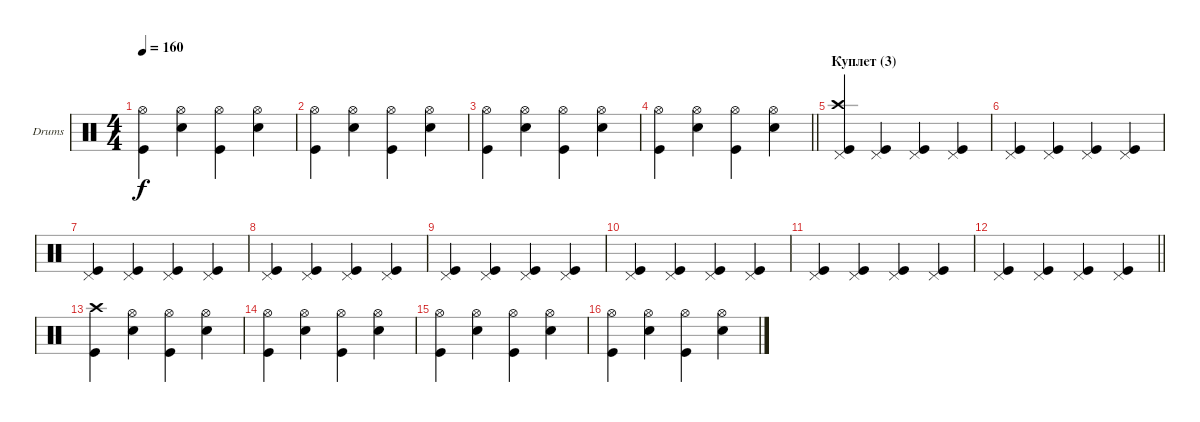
\bracketExtendMode groupsimilarinstruments
\firstSystemTrackNameOrientation horizontal
\otherSystemsTrackNameOrientation horizontal
\track ("Drumkit" "Drums") {instrument percussion}
\staff {score}
\articulation defaults
\ts (4 4)
\tempo 160
\clef neutral
\ks c
("Hi-Hat (open)" "Kick (hit)").4{dy f} ("Hi-Hat (open)" "Snare (hit) 2").4 ("Hi-Hat (open)" "Kick (hit)").4 ("Hi-Hat (open)" "Snare (hit) 2").4 |
("Hi-Hat (open)" "Kick (hit)").4 ("Hi-Hat (open)" "Snare (hit) 2").4 ("Hi-Hat (open)" "Kick (hit)").4 ("Hi-Hat (open)" "Snare (hit) 2").4 |
("Hi-Hat (open)" "Kick (hit)").4 ("Hi-Hat (open)" "Snare (hit) 2").4 ("Hi-Hat (open)" "Kick (hit)").4 ("Hi-Hat (open)" "Snare (hit) 2").4 |
\barLineRight lightlight
("Hi-Hat (open)" "Kick (hit)").4 ("Hi-Hat (open)" "Snare (hit) 2").4 ("Hi-Hat (open)" "Kick (hit)").4 ("Hi-Hat (open)" "Snare (hit) 2").4 |
\section ("" "Куплет (3)")
("Crash high (hit)" "Pedal Hi-Hat (hit)" "Kick (hit)").4 ("Pedal Hi-Hat (hit)" "Kick (hit)").4 ("Pedal Hi-Hat (hit)" "Kick (hit)").4 ("Pedal Hi-Hat (hit)" "Kick (hit)").4 |
("Pedal Hi-Hat (hit)" "Kick (hit)").4 ("Pedal Hi-Hat (hit)" "Kick (hit)").4 ("Pedal Hi-Hat (hit)" "Kick (hit)").4 ("Pedal Hi-Hat (hit)" "Kick (hit)").4 |
("Pedal Hi-Hat (hit)" "Kick (hit)").4 ("Pedal Hi-Hat (hit)" "Kick (hit)").4 ("Pedal Hi-Hat (hit)" "Kick (hit)").4 ("Pedal Hi-Hat (hit)" "Kick (hit)").4 |
("Pedal Hi-Hat (hit)" "Kick (hit)").4 ("Pedal Hi-Hat (hit)" "Kick (hit)").4 ("Pedal Hi-Hat (hit)" "Kick (hit)").4 ("Pedal Hi-Hat (hit)" "Kick (hit)").4 |
("Pedal Hi-Hat (hit)" "Kick (hit)").4 ("Pedal Hi-Hat (hit)" "Kick (hit)").4 ("Pedal Hi-Hat (hit)" "Kick (hit)").4 ("Pedal Hi-Hat (hit)" "Kick (hit)").4 |
("Pedal Hi-Hat (hit)" "Kick (hit)").4 ("Pedal Hi-Hat (hit)" "Kick (hit)").4 ("Pedal Hi-Hat (hit)" "Kick (hit)").4 ("Pedal Hi-Hat (hit)" "Kick (hit)").4 |
("Pedal Hi-Hat (hit)" "Kick (hit)").4 ("Pedal Hi-Hat (hit)" "Kick (hit)").4 ("Pedal Hi-Hat (hit)" "Kick (hit)").4 ("Pedal Hi-Hat (hit)" "Kick (hit)").4 |
\barLineRight lightlight
("Pedal Hi-Hat (hit)" "Kick (hit)").4 ("Pedal Hi-Hat (hit)" "Kick (hit)").4 ("Pedal Hi-Hat (hit)" "Kick (hit)").4 ("Pedal Hi-Hat (hit)" "Kick (hit)").4 |
\section ("" " ")
("Crash high (hit)" "Kick (hit)").4 ("Hi-Hat (open)" "Snare (hit) 2").4 ("Hi-Hat (open)" "Kick (hit)").4 ("Hi-Hat (open)" "Snare (hit) 2").4 |
("Hi-Hat (open)" "Kick (hit)").4 ("Hi-Hat (open)" "Snare (hit) 2").4 ("Hi-Hat (open)" "Kick (hit)").4 ("Hi-Hat (open)" "Snare (hit) 2").4 |
("Hi-Hat (open)" "Kick (hit)").4 ("Hi-Hat (open)" "Snare (hit) 2").4 ("Hi-Hat (open)" "Kick (hit)").4 ("Hi-Hat (open)" "Snare (hit) 2").4 |
("Hi-Hat (open)" "Kick (hit)").4 ("Hi-Hat (open)" "Snare (hit) 2").4 ("Hi-Hat (open)" "Kick (hit)").4 ("Hi-Hat (open)" "Snare (hit) 2").4
